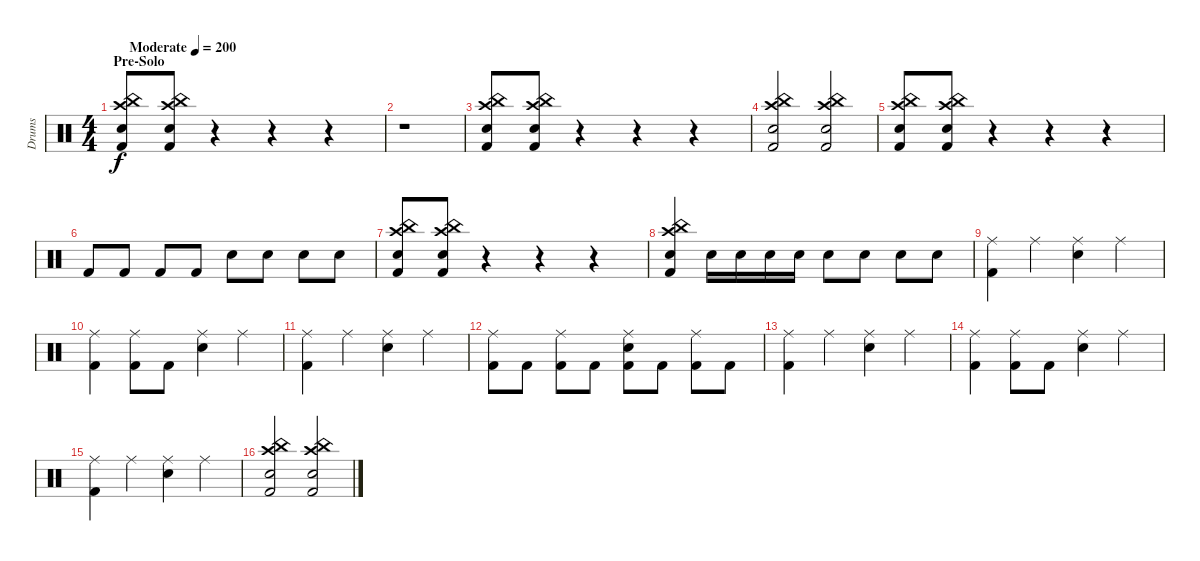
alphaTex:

\track ("Drums" "Drums") {instrument percussion}
\staff {score}
\articulation defaults
\ts (4 4)
\section ("" "Pre-Solo")
\tempo (200 "Moderate")
\clef neutral
\ks c
("Electric Snare (hit)" "Crash high (hit)" "China (hit)" "Kick (hit) 2").8{dy f} ("Electric Snare (hit)" "Kick (hit) 2" "Crash high (hit)" "China (hit)").8 r.4 r.4 r.4 |
r.1 |
("Electric Snare (hit)" "Crash high (hit)" "China (hit)" "Kick (hit) 2").8 ("Electric Snare (hit)" "Kick (hit) 2" "Crash high (hit)" "China (hit)").8 r.4 r.4 r.4 |
("Kick (hit) 2" "Crash high (hit)" "China (hit)" "Electric Snare (hit)").2 ("China (hit)" "Crash high (hit)" "Kick (hit) 2" "Electric Snare (hit)").2 |
("Electric Snare (hit)" "Crash high (hit)" "China (hit)" "Kick (hit) 2").8 ("Electric Snare (hit)" "Kick (hit) 2" "Crash high (hit)" "China (hit)").8 r.4 r.4 r.4 |
"Kick (hit) 2".8 "Kick (hit) 2".8 "Kick (hit) 2".8 "Kick (hit) 2".8 "Snare (hit) 2".8 "Snare (hit) 2".8 "Snare (hit) 2".8 "Snare (hit) 2".8 |
("Electric Snare (hit)" "Crash high (hit)" "China (hit)" "Kick (hit) 2").8 ("Electric Snare (hit)" "Kick (hit) 2" "Crash high (hit)" "China (hit)").8 r.4 r.4 r.4 |
("Kick (hit) 2" "Electric Snare (hit)" "Crash high (hit)" "China (hit)").4 "Snare (hit) 2".16 "Snare (hit) 2".16 "Snare (hit) 2".16 "Snare (hit) 2".16 "Electric Snare (hit)".8 "Electric Snare (hit)".8 "Electric Snare (hit)".8 "Electric Snare (hit)".8 |
("Kick (hit) 2" "Ride (middle)").4 "Ride (middle)".4 ("Electric Snare (hit)" "Ride (middle)").4 "Ride (middle)".4 |
("Kick (hit) 2" "Ride (middle)").4 ("Kick (hit) 2" "Ride (middle)").8 "Kick (hit) 2".8 ("Electric Snare (hit)" "Ride (middle)").4 "Ride (middle)".4 |
("Kick (hit) 2" "Ride (middle)").4 "Ride (middle)".4 ("Electric Snare (hit)" "Ride (middle)").4 "Ride (middle)".4 |
("Kick (hit) 2" "Ride (middle)").8 "Kick (hit) 2".8 ("Kick (hit) 2" "Ride (middle)").8 "Kick (hit) 2".8 ("Kick (hit) 2" "Electric Snare (hit)" "Ride (middle)").8 "Kick (hit) 2".8 ("Kick (hit) 2" "Ride (middle)").8 "Kick (hit) 2".8 |
("Kick (hit) 2" "Ride (middle)").4 "Ride (middle)".4 ("Electric Snare (hit)" "Ride (middle)").4 "Ride (middle)".4 |
("Kick (hit) 2" "Ride (middle)").4 ("Kick (hit) 2" "Ride (middle)").8 "Kick (hit) 2".8 ("Electric Snare (hit)" "Ride (middle)").4 "Ride (middle)".4 |
("Kick (hit) 2" "Ride (middle)").4 "Ride (middle)".4 ("Electric Snare (hit)" "Ride (middle)").4 "Ride (middle)".4 |
("Kick (hit) 2" "Electric Snare (hit)" "Crash high (hit)" "China (hit)").2 ("China (hit)" "Crash high (hit)" "Kick (hit) 2" "Electric Snare (hit)").2
